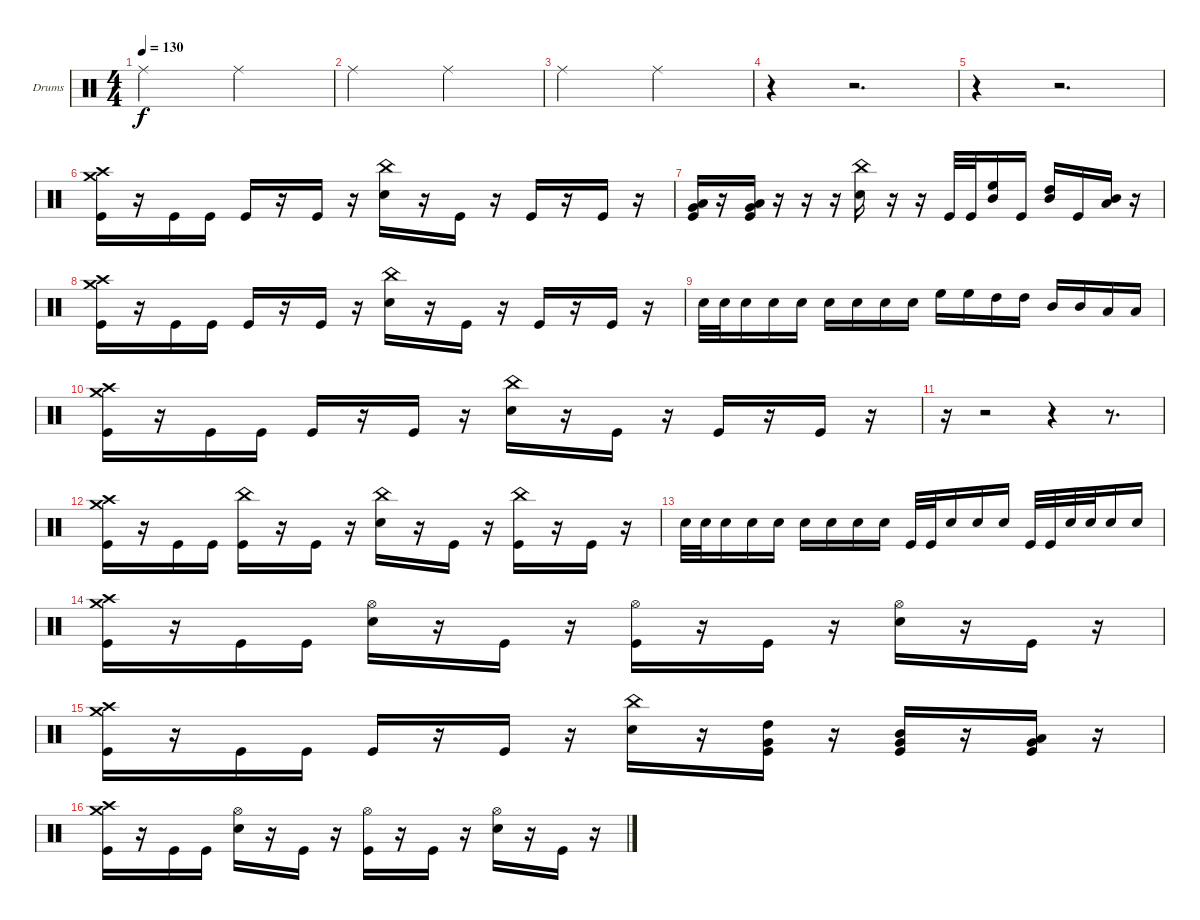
\defaultSystemsLayout 4
\bracketExtendMode groupsimilarinstruments
\firstSystemTrackNameOrientation horizontal
\otherSystemsTrackNameOrientation horizontal
\track ("Drumkit" "Drums") {instrument percussion}
\staff {score}
\articulation defaults
\ts (4 4)
\tempo 130
\clef neutral
\scale
0.333333
\ks c "Ride (middle)".2{dy f} "Ride (middle)".2
|
\scale
0.333333 "Ride (middle)".2 "Ride (middle)".2 |
\scale
0.333333 "Ride (middle)".2 "Ride (middle)".2 |
\scale
0.333333 r.4 r.2{d} |
\scale
0.333333 r.4 r.2{d} |
\scale
0.333333 ("Kick (hit)" "Crash medium (hit)" "Crash high (hit)").16 r.16 "Kick (hit)".16 "Kick (hit)".16 "Kick (hit)".16 r.16 "Kick (hit)".16 r.16 ("Snare (hit) 2" "China (hit)").16 r.16 "Kick (hit)".16 r.16 "Kick (hit)".16 r.16 "Kick (hit)".16 r.16 |
\scale
0.333333 ("Kick (hit)" "Very Low Tom (hit)" "Low Tom (hit)").16 r.16 ("Kick (hit)" "Very Low Tom (hit)" "Low Tom (hit)").16 r.16 r.16 r.16 ("Snare (hit) 2" "China (hit)").16 r.16 r.16 "Kick (hit)".32 "Kick (hit)".32 ("Mid Tom (hit)" "High Floor Tom (hit)").16 "Kick (hit)".16 ("Mid Tom (hit)" "High Tom (hit)").16 "Kick (hit)".16 ("Low Tom (hit)" "Mid Tom (hit)").16 r.16 |
\scale
0.333333 ("Kick (hit)" "Crash medium (hit)" "Crash high (hit)").16 r.16 "Kick (hit)".16 "Kick (hit)".16 "Kick (hit)".16 r.16 "Kick (hit)".16 r.16 ("Snare (hit) 2" "China (hit)").16 r.16 "Kick (hit)".16 r.16 "Kick (hit)".16 r.16 "Kick (hit)".16 r.16 |
\scale
0.333333 "Snare (hit) 2".32 "Snare (hit) 2".32 "Snare (hit) 2".16 "Snare (hit) 2".16 "Snare (hit) 2".16 "Snare (hit) 2".16 "Snare (hit) 2".16 "Snare (hit) 2".16 "Snare (hit) 2".16 "High Floor Tom (hit)".16 "High Floor Tom (hit)".16 "High Tom (hit)".16 "High Tom (hit)".16 "Mid Tom (hit)".16 "Mid Tom (hit)".16 "Low Tom (hit)".16 "Low Tom (hit)".16 |
\scale
0.333333 ("Kick (hit)" "Crash medium (hit)" "Crash high (hit)").16 r.16 "Kick (hit)".16 "Kick (hit)".16 "Kick (hit)".16 r.16 "Kick (hit)".16 r.16 ("Snare (hit) 2" "China (hit)").16 r.16 "Kick (hit)".16 r.16 "Kick (hit)".16 r.16 "Kick (hit)".16 r.16 |
\scale
0.333333 r.16 r.2 r.4 r.8{d} |
\scale
0.333333 ("Kick (hit)" "Crash medium (hit)" "Crash high (hit)").16 r.16 "Kick (hit)".16 "Kick (hit)".16 ("Kick (hit)" "China (hit)").16 r.16 "Kick (hit)".16 r.16 ("Snare (hit) 2" "China (hit)").16 r.16 "Kick (hit)".16 r.16 ("Kick (hit)" "China (hit)").16 r.16 "Kick (hit)".16 r.16 |
\scale
0.333333 "Snare (hit) 2".32 "Snare (hit) 2".32 "Snare (hit) 2".16 "Snare (hit) 2".16 "Snare (hit) 2".16 "Snare (hit) 2".16 "Snare (hit) 2".16 "Snare (hit) 2".16 "Snare (hit) 2".16 "Kick (hit)".32 "Kick (hit)".32 "Snare (hit) 2".16 "Snare (hit) 2".16 "Snare (hit) 2".16 "Kick (hit)".32 "Kick (hit)".32 "Snare (hit) 2".32 "Snare (hit) 2".32 "Snare (hit) 2".16 "Snare (hit) 2".16 |
\scale
0.333333 ("Kick (hit)" "Crash medium (hit)" "Crash high (hit)").16 r.16 "Kick (hit)".16 "Kick (hit)".16 ("Snare (hit) 2" "Hi-Hat (open)").16 r.16 "Kick (hit)".16 r.16 ("Kick (hit)" "Hi-Hat (open)").16 r.16 "Kick (hit)".16 r.16 ("Snare (hit) 2" "Hi-Hat (open)").16 r.16 "Kick (hit)".16 r.16 |
\scale
0.333333 ("Kick (hit)" "Crash medium (hit)" "Crash high (hit)").16 r.16 "Kick (hit)".16 "Kick (hit)".16 "Kick (hit)".16 r.16 "Kick (hit)".16 r.16 ("Snare (hit) 2" "China (hit)").16 r.16 ("Kick (hit)" "Very Low Tom (hit)" "High Tom (hit)").16 r.16 ("Kick (hit)" "Very Low Tom (hit)" "Mid Tom (hit)").16 r.16 ("Kick (hit)" "Very Low Tom (hit)" "Low Tom (hit)").16 r.16 |
\scale
0.333333 ("Kick (hit)" "Crash medium (hit)" "Crash high (hit)").16 r.16 "Kick (hit)".16 "Kick (hit)".16 ("Snare (hit) 2" "Hi-Hat (open)").16 r.16 "Kick (hit)".16 r.16 ("Kick (hit)" "Hi-Hat (open)").16 r.16 "Kick (hit)".16 r.16 ("Snare (hit) 2" "Hi-Hat (open)").16 r.16 "Kick (hit)".16 r.16
